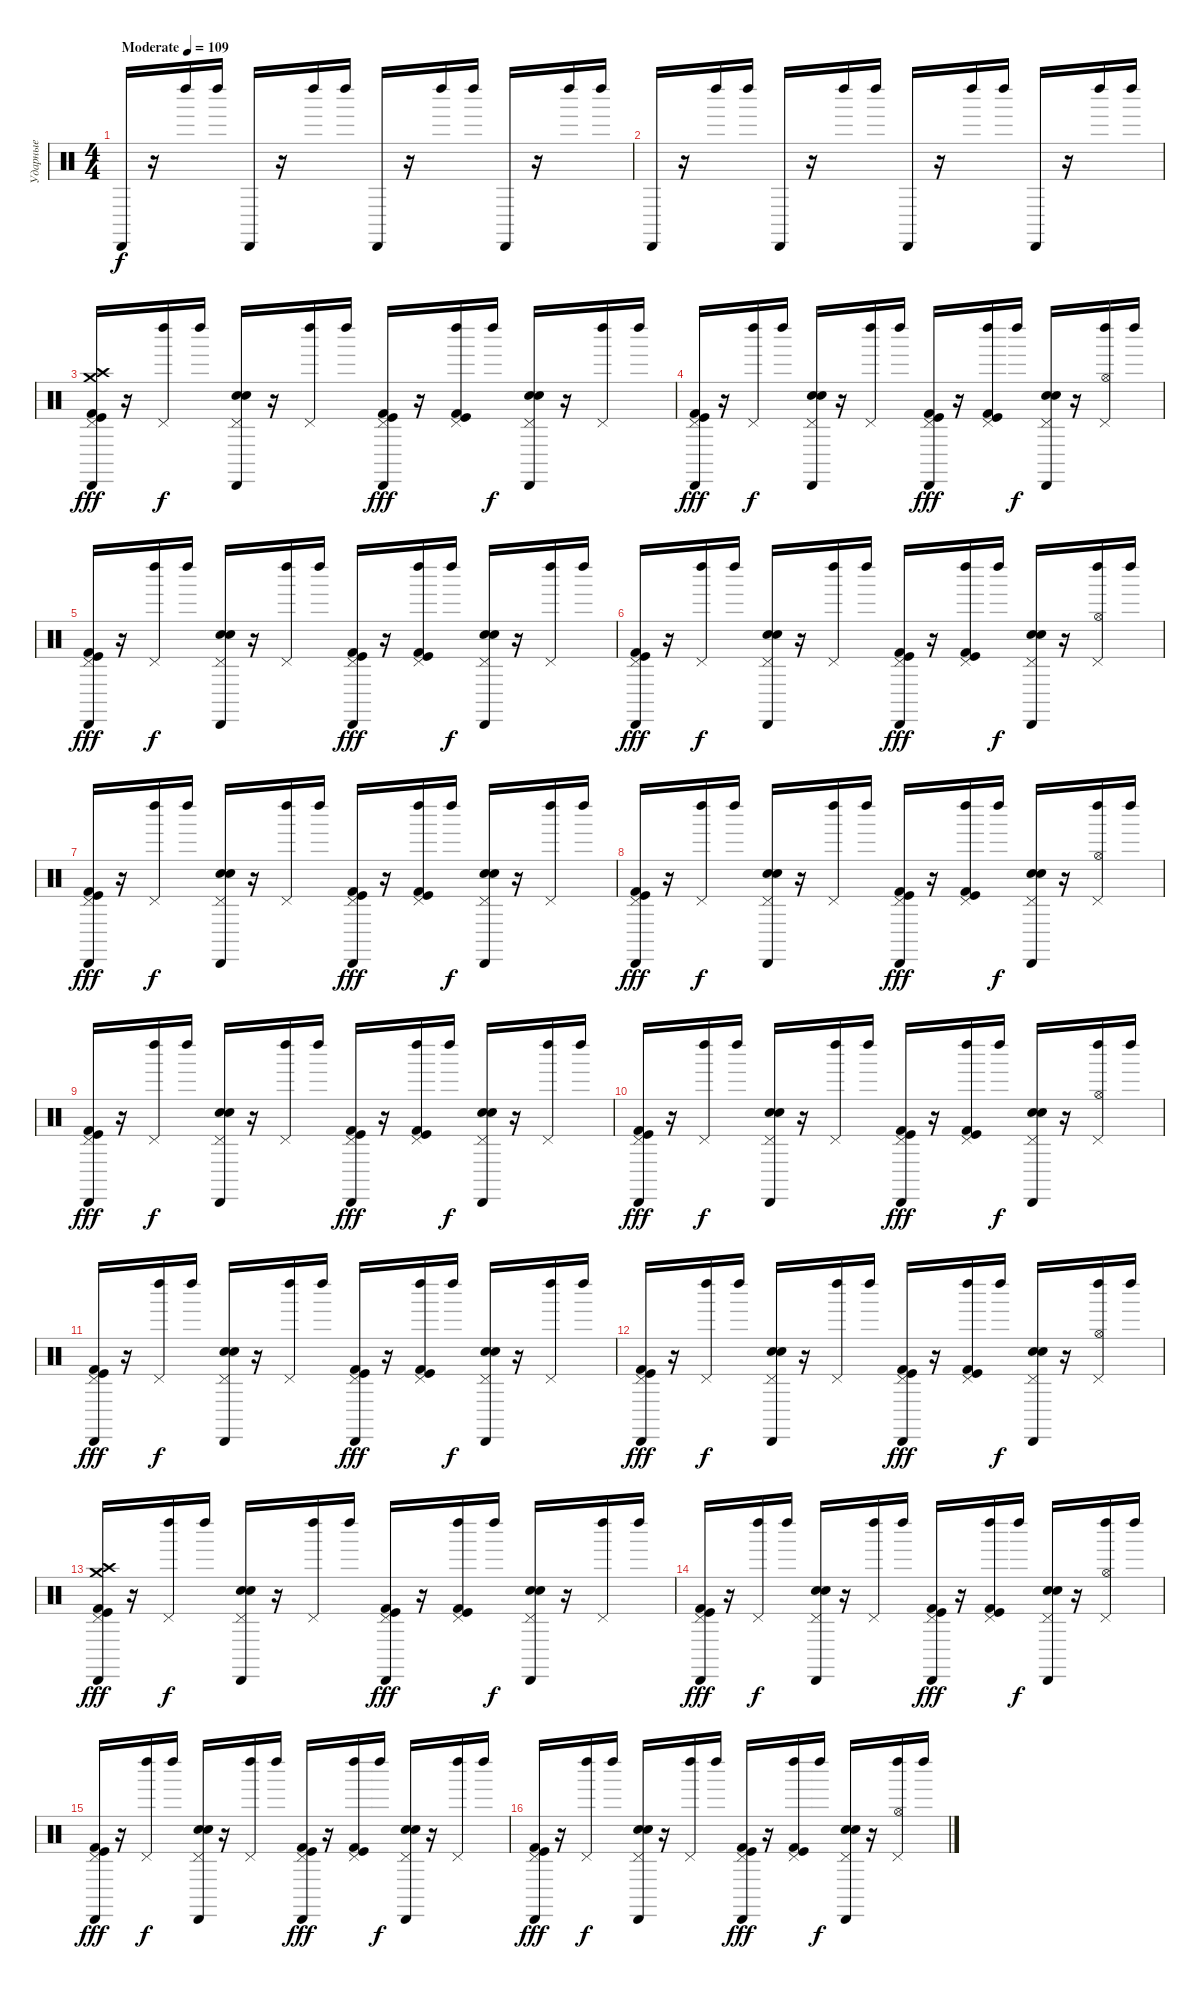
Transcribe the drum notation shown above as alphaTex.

\track ("Ударные" "Ударные") {instrument percussion}
\staff {score}
\articulation defaults
\ts (4 4)
\tempo (109 "Moderate")
\clef neutral
\ks c "Cabasa (hit)".16{dy f}
r.16 "Left Maraca (hit)".16 "Left Maraca (hit)".16 "Cabasa (hit)".16 r.16 "Left Maraca (hit)".16 "Left Maraca (hit)".16 "Cabasa (hit)".16 r.16 "Left Maraca (hit)".16 "Left Maraca (hit)".16 "Cabasa (hit)".16 r.16 "Left Maraca (hit)".16 "Left Maraca (hit)".16 |
"Cabasa (hit)".16 r.16 "Left Maraca (hit)".16 "Left Maraca (hit)".16 "Cabasa (hit)".16 r.16 "Left Maraca (hit)".16 "Left Maraca (hit)".16 "Cabasa (hit)".16 r.16 "Left Maraca (hit)".16 "Left Maraca (hit)".16 "Cabasa (hit)".16 r.16 "Left Maraca (hit)".16 "Left Maraca (hit)".16 |
("Cabasa (hit)" "Kick (hit) 2" "Kick (hit)" "Pedal Hi-Hat (hit)" "Crash high (hit)" "Crash medium (hit)").16{dy fff} r.16 ("Left Maraca (hit)" "Pedal Hi-Hat (hit)").16{dy f} "Left Maraca (hit)".16 ("Cabasa (hit)" "Snare (hit) 2" "Electric Snare (hit)" "Pedal Hi-Hat (hit)").16 r.16 ("Left Maraca (hit)" "Pedal Hi-Hat (hit)").16 "Left Maraca (hit)".16 ("Cabasa (hit)" "Kick (hit) 2" "Kick (hit)" "Pedal Hi-Hat (hit)").16{dy fff} r.16 ("Left Maraca (hit)" "Kick (hit) 2" "Kick (hit)" "Pedal Hi-Hat (hit)").16 "Left Maraca (hit)".16{dy f} ("Cabasa (hit)" "Electric Snare (hit)" "Snare (hit) 2" "Pedal Hi-Hat (hit)").16 r.16 ("Left Maraca (hit)" "Pedal Hi-Hat (hit)").16 "Left Maraca (hit)".16 |
("Cabasa (hit)" "Kick (hit)" "Kick (hit) 2" "Pedal Hi-Hat (hit)").16{dy fff} r.16 ("Left Maraca (hit)" "Pedal Hi-Hat (hit)").16{dy f} "Left Maraca (hit)".16 ("Cabasa (hit)" "Snare (hit) 2" "Electric Snare (hit)" "Pedal Hi-Hat (hit)").16 r.16 ("Left Maraca (hit)" "Pedal Hi-Hat (hit)").16 "Left Maraca (hit)".16 ("Cabasa (hit)" "Kick (hit) 2" "Kick (hit)" "Pedal Hi-Hat (hit)").16{dy fff} r.16 ("Left Maraca (hit)" "Kick (hit)" "Kick (hit) 2" "Pedal Hi-Hat (hit)").16 "Left Maraca (hit)".16{dy f} ("Cabasa (hit)" "Snare (hit) 2" "Electric Snare (hit)" "Pedal Hi-Hat (hit)").16 r.16 ("Left Maraca (hit)" "Pedal Hi-Hat (hit)" "Hi-Hat (open)").16 "Left Maraca (hit)".16 |
("Cabasa (hit)" "Kick (hit)" "Kick (hit) 2" "Pedal Hi-Hat (hit)").16{dy fff} r.16 ("Left Maraca (hit)" "Pedal Hi-Hat (hit)").16{dy f} "Left Maraca (hit)".16 ("Cabasa (hit)" "Snare (hit) 2" "Electric Snare (hit)" "Pedal Hi-Hat (hit)").16 r.16 ("Left Maraca (hit)" "Pedal Hi-Hat (hit)").16 "Left Maraca (hit)".16 ("Cabasa (hit)" "Kick (hit) 2" "Kick (hit)" "Pedal Hi-Hat (hit)").16{dy fff} r.16 ("Left Maraca (hit)" "Kick (hit)" "Kick (hit) 2" "Pedal Hi-Hat (hit)").16 "Left Maraca (hit)".16{dy f} ("Cabasa (hit)" "Snare (hit) 2" "Electric Snare (hit)" "Pedal Hi-Hat (hit)").16 r.16 ("Left Maraca (hit)" "Pedal Hi-Hat (hit)").16 "Left Maraca (hit)".16 |
("Cabasa (hit)" "Kick (hit) 2" "Kick (hit)" "Pedal Hi-Hat (hit)").16{dy fff} r.16 ("Left Maraca (hit)" "Pedal Hi-Hat (hit)").16{dy f} "Left Maraca (hit)".16 ("Cabasa (hit)" "Electric Snare (hit)" "Snare (hit) 2" "Pedal Hi-Hat (hit)").16 r.16 ("Left Maraca (hit)" "Pedal Hi-Hat (hit)").16 "Left Maraca (hit)".16 ("Cabasa (hit)" "Kick (hit) 2" "Kick (hit)" "Pedal Hi-Hat (hit)").16{dy fff} r.16 ("Left Maraca (hit)" "Kick (hit) 2" "Kick (hit)" "Pedal Hi-Hat (hit)").16 "Left Maraca (hit)".16{dy f} ("Cabasa (hit)" "Electric Snare (hit)" "Snare (hit) 2" "Pedal Hi-Hat (hit)").16 r.16 ("Left Maraca (hit)" "Pedal Hi-Hat (hit)" "Hi-Hat (open)").16 "Left Maraca (hit)".16 |
("Cabasa (hit)" "Kick (hit)" "Kick (hit) 2" "Pedal Hi-Hat (hit)").16{dy fff} r.16 ("Left Maraca (hit)" "Pedal Hi-Hat (hit)").16{dy f} "Left Maraca (hit)".16 ("Cabasa (hit)" "Snare (hit) 2" "Electric Snare (hit)" "Pedal Hi-Hat (hit)").16 r.16 ("Left Maraca (hit)" "Pedal Hi-Hat (hit)").16 "Left Maraca (hit)".16 ("Cabasa (hit)" "Kick (hit)" "Kick (hit) 2" "Pedal Hi-Hat (hit)").16{dy fff} r.16 ("Left Maraca (hit)" "Kick (hit) 2" "Kick (hit)" "Pedal Hi-Hat (hit)").16 "Left Maraca (hit)".16{dy f} ("Cabasa (hit)" "Electric Snare (hit)" "Snare (hit) 2" "Pedal Hi-Hat (hit)").16 r.16 ("Left Maraca (hit)" "Pedal Hi-Hat (hit)").16 "Left Maraca (hit)".16 |
("Cabasa (hit)" "Kick (hit) 2" "Kick (hit)" "Pedal Hi-Hat (hit)").16{dy fff} r.16 ("Left Maraca (hit)" "Pedal Hi-Hat (hit)").16{dy f} "Left Maraca (hit)".16 ("Cabasa (hit)" "Snare (hit) 2" "Electric Snare (hit)" "Pedal Hi-Hat (hit)").16 r.16 ("Left Maraca (hit)" "Pedal Hi-Hat (hit)").16 "Left Maraca (hit)".16 ("Cabasa (hit)" "Kick (hit) 2" "Kick (hit)" "Pedal Hi-Hat (hit)").16{dy fff} r.16 ("Left Maraca (hit)" "Kick (hit)" "Kick (hit) 2" "Pedal Hi-Hat (hit)").16 "Left Maraca (hit)".16{dy f} ("Cabasa (hit)" "Electric Snare (hit)" "Snare (hit) 2" "Pedal Hi-Hat (hit)").16 r.16 ("Left Maraca (hit)" "Pedal Hi-Hat (hit)" "Hi-Hat (open)").16 "Left Maraca (hit)".16 |
("Cabasa (hit)" "Kick (hit) 2" "Kick (hit)" "Pedal Hi-Hat (hit)").16{dy fff} r.16 ("Left Maraca (hit)" "Pedal Hi-Hat (hit)").16{dy f} "Left Maraca (hit)".16 ("Cabasa (hit)" "Electric Snare (hit)" "Snare (hit) 2" "Pedal Hi-Hat (hit)").16 r.16 ("Left Maraca (hit)" "Pedal Hi-Hat (hit)").16 "Left Maraca (hit)".16 ("Cabasa (hit)" "Kick (hit) 2" "Kick (hit)" "Pedal Hi-Hat (hit)").16{dy fff} r.16 ("Left Maraca (hit)" "Kick (hit) 2" "Kick (hit)" "Pedal Hi-Hat (hit)").16 "Left Maraca (hit)".16{dy f} ("Cabasa (hit)" "Snare (hit) 2" "Electric Snare (hit)" "Pedal Hi-Hat (hit)").16 r.16 ("Left Maraca (hit)" "Pedal Hi-Hat (hit)").16 "Left Maraca (hit)".16 |
("Cabasa (hit)" "Kick (hit) 2" "Kick (hit)" "Pedal Hi-Hat (hit)").16{dy fff} r.16 ("Left Maraca (hit)" "Pedal Hi-Hat (hit)").16{dy f} "Left Maraca (hit)".16 ("Cabasa (hit)" "Snare (hit) 2" "Electric Snare (hit)" "Pedal Hi-Hat (hit)").16 r.16 ("Left Maraca (hit)" "Pedal Hi-Hat (hit)").16 "Left Maraca (hit)".16 ("Cabasa (hit)" "Kick (hit) 2" "Kick (hit)" "Pedal Hi-Hat (hit)").16{dy fff} r.16 ("Left Maraca (hit)" "Kick (hit)" "Kick (hit) 2" "Pedal Hi-Hat (hit)").16 "Left Maraca (hit)".16{dy f} ("Cabasa (hit)" "Snare (hit) 2" "Electric Snare (hit)" "Pedal Hi-Hat (hit)").16 r.16 ("Left Maraca (hit)" "Pedal Hi-Hat (hit)" "Hi-Hat (open)").16 "Left Maraca (hit)".16 |
("Cabasa (hit)" "Kick (hit)" "Kick (hit) 2" "Pedal Hi-Hat (hit)").16{dy fff} r.16 ("Left Maraca (hit)" "Pedal Hi-Hat (hit)").16{dy f} "Left Maraca (hit)".16 ("Cabasa (hit)" "Snare (hit) 2" "Electric Snare (hit)" "Pedal Hi-Hat (hit)").16 r.16 ("Left Maraca (hit)" "Pedal Hi-Hat (hit)").16 "Left Maraca (hit)".16 ("Cabasa (hit)" "Kick (hit)" "Kick (hit) 2" "Pedal Hi-Hat (hit)").16{dy fff} r.16 ("Left Maraca (hit)" "Kick (hit)" "Kick (hit) 2" "Pedal Hi-Hat (hit)").16 "Left Maraca (hit)".16{dy f} ("Cabasa (hit)" "Electric Snare (hit)" "Snare (hit) 2" "Pedal Hi-Hat (hit)").16 r.16 ("Left Maraca (hit)" "Pedal Hi-Hat (hit)").16 "Left Maraca (hit)".16 |
("Cabasa (hit)" "Kick (hit)" "Kick (hit) 2" "Pedal Hi-Hat (hit)").16{dy fff} r.16 ("Left Maraca (hit)" "Pedal Hi-Hat (hit)").16{dy f} "Left Maraca (hit)".16 ("Cabasa (hit)" "Snare (hit) 2" "Electric Snare (hit)" "Pedal Hi-Hat (hit)").16 r.16 ("Left Maraca (hit)" "Pedal Hi-Hat (hit)").16 "Left Maraca (hit)".16 ("Cabasa (hit)" "Kick (hit) 2" "Kick (hit)" "Pedal Hi-Hat (hit)").16{dy fff} r.16 ("Left Maraca (hit)" "Kick (hit) 2" "Kick (hit)" "Pedal Hi-Hat (hit)").16 "Left Maraca (hit)".16{dy f} ("Cabasa (hit)" "Snare (hit) 2" "Electric Snare (hit)" "Pedal Hi-Hat (hit)").16 r.16 ("Left Maraca (hit)" "Pedal Hi-Hat (hit)" "Hi-Hat (open)").16 "Left Maraca (hit)".16 |
("Cabasa (hit)" "Kick (hit) 2" "Kick (hit)" "Pedal Hi-Hat (hit)" "Crash medium (hit)" "Crash high (hit)").16{dy fff} r.16 ("Left Maraca (hit)" "Pedal Hi-Hat (hit)").16{dy f} "Left Maraca (hit)".16 ("Cabasa (hit)" "Electric Snare (hit)" "Snare (hit) 2" "Pedal Hi-Hat (hit)").16 r.16 ("Left Maraca (hit)" "Pedal Hi-Hat (hit)").16 "Left Maraca (hit)".16 ("Cabasa (hit)" "Kick (hit) 2" "Kick (hit)" "Pedal Hi-Hat (hit)").16{dy fff} r.16 ("Left Maraca (hit)" "Kick (hit) 2" "Kick (hit)" "Pedal Hi-Hat (hit)").16 "Left Maraca (hit)".16{dy f} ("Cabasa (hit)" "Electric Snare (hit)" "Snare (hit) 2" "Pedal Hi-Hat (hit)").16 r.16 ("Left Maraca (hit)" "Pedal Hi-Hat (hit)").16 "Left Maraca (hit)".16 |
("Cabasa (hit)" "Kick (hit)" "Kick (hit) 2" "Pedal Hi-Hat (hit)").16{dy fff} r.16 ("Left Maraca (hit)" "Pedal Hi-Hat (hit)").16{dy f} "Left Maraca (hit)".16 ("Cabasa (hit)" "Snare (hit) 2" "Electric Snare (hit)" "Pedal Hi-Hat (hit)").16 r.16 ("Left Maraca (hit)" "Pedal Hi-Hat (hit)").16 "Left Maraca (hit)".16 ("Cabasa (hit)" "Kick (hit)" "Kick (hit) 2" "Pedal Hi-Hat (hit)").16{dy fff} r.16 ("Left Maraca (hit)" "Kick (hit) 2" "Kick (hit)" "Pedal Hi-Hat (hit)").16 "Left Maraca (hit)".16{dy f} ("Cabasa (hit)" "Electric Snare (hit)" "Snare (hit) 2" "Pedal Hi-Hat (hit)").16 r.16 ("Left Maraca (hit)" "Pedal Hi-Hat (hit)" "Hi-Hat (open)").16 "Left Maraca (hit)".16 |
("Cabasa (hit)" "Kick (hit) 2" "Kick (hit)" "Pedal Hi-Hat (hit)").16{dy fff} r.16 ("Left Maraca (hit)" "Pedal Hi-Hat (hit)").16{dy f} "Left Maraca (hit)".16 ("Cabasa (hit)" "Electric Snare (hit)" "Snare (hit) 2" "Pedal Hi-Hat (hit)").16 r.16 ("Left Maraca (hit)" "Pedal Hi-Hat (hit)").16 "Left Maraca (hit)".16 ("Cabasa (hit)" "Kick (hit) 2" "Kick (hit)" "Pedal Hi-Hat (hit)").16{dy fff} r.16 ("Left Maraca (hit)" "Kick (hit) 2" "Kick (hit)" "Pedal Hi-Hat (hit)").16 "Left Maraca (hit)".16{dy f} ("Cabasa (hit)" "Electric Snare (hit)" "Snare (hit) 2" "Pedal Hi-Hat (hit)").16 r.16 ("Left Maraca (hit)" "Pedal Hi-Hat (hit)").16 "Left Maraca (hit)".16 |
("Cabasa (hit)" "Kick (hit) 2" "Kick (hit)" "Pedal Hi-Hat (hit)").16{dy fff} r.16 ("Left Maraca (hit)" "Pedal Hi-Hat (hit)").16{dy f} "Left Maraca (hit)".16 ("Cabasa (hit)" "Electric Snare (hit)" "Snare (hit) 2" "Pedal Hi-Hat (hit)").16 r.16 ("Left Maraca (hit)" "Pedal Hi-Hat (hit)").16 "Left Maraca (hit)".16 ("Cabasa (hit)" "Kick (hit)" "Kick (hit) 2" "Pedal Hi-Hat (hit)").16{dy fff} r.16 ("Left Maraca (hit)" "Kick (hit) 2" "Kick (hit)" "Pedal Hi-Hat (hit)").16 "Left Maraca (hit)".16{dy f} ("Cabasa (hit)" "Electric Snare (hit)" "Snare (hit) 2" "Pedal Hi-Hat (hit)").16 r.16 ("Left Maraca (hit)" "Pedal Hi-Hat (hit)" "Hi-Hat (open)").16 "Left Maraca (hit)".16
